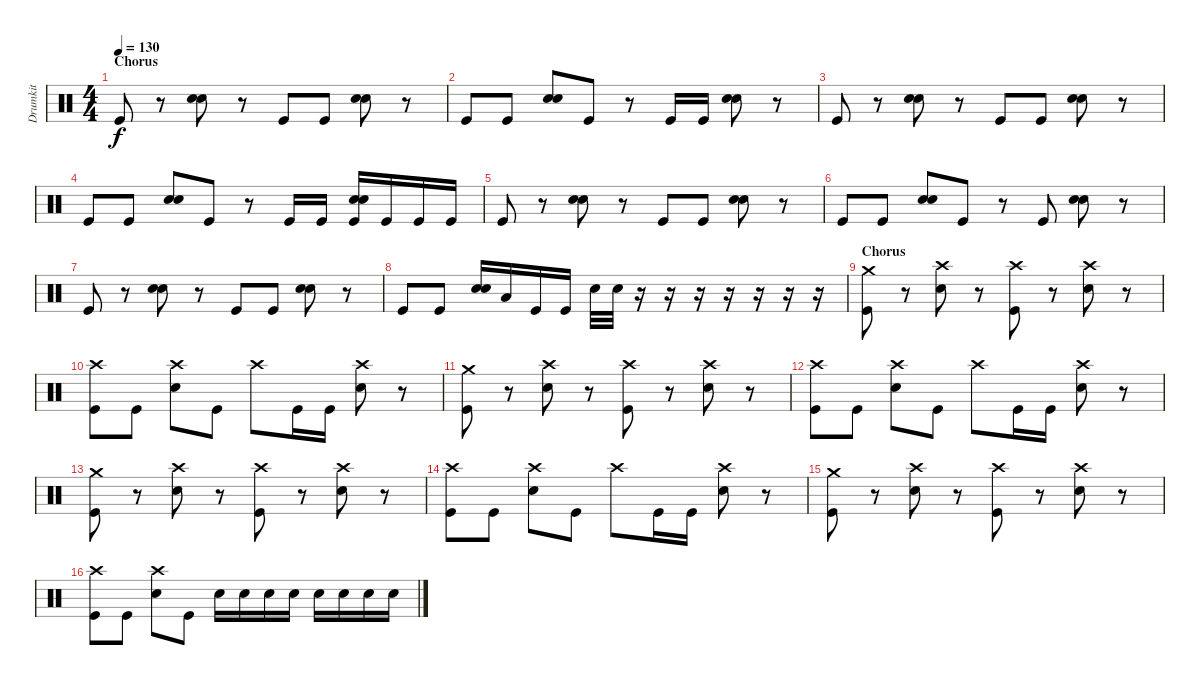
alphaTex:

\track ("Drumkit" "Drumkit") {instrument percussion}
\staff {score}
\articulation defaults
\ts (4 4)
\section ("" "Chorus")
\tempo 130
\clef neutral
\ks c "Kick (hit)".8{dy f}
r.8 ("Hand Clap (hit)" "Electric Snare (hit)").8 r.8 "Kick (hit)".8 "Kick (hit)".8 ("Hand Clap (hit)" "Electric Snare (hit)").8 r.8 |
"Kick (hit)".8 "Kick (hit)".8 ("Hand Clap (hit)" "Electric Snare (hit)").8 "Kick (hit)".8 r.8 "Kick (hit)".16 "Kick (hit)".16 ("Hand Clap (hit)" "Electric Snare (hit)").8 r.8 |
"Kick (hit)".8 r.8 ("Hand Clap (hit)" "Electric Snare (hit)").8 r.8 "Kick (hit)".8 "Kick (hit)".8 ("Hand Clap (hit)" "Electric Snare (hit)").8 r.8 |
"Kick (hit)".8 "Kick (hit)".8 ("Hand Clap (hit)" "Electric Snare (hit)").8 "Kick (hit)".8 r.8 "Kick (hit)".16 "Kick (hit)".16 ("Hand Clap (hit)" "Electric Snare (hit)" "Kick (hit)").16 "Kick (hit)".16 "Kick (hit)".16 "Kick (hit)".16 |
"Kick (hit)".8 r.8 ("Hand Clap (hit)" "Electric Snare (hit)").8 r.8 "Kick (hit)".8 "Kick (hit)".8 ("Hand Clap (hit)" "Electric Snare (hit)").8 r.8 |
"Kick (hit)".8 "Kick (hit)".8 ("Hand Clap (hit)" "Electric Snare (hit)").8 "Kick (hit)".8 r.8 "Kick (hit)".8 ("Hand Clap (hit)" "Electric Snare (hit)").8 r.8 |
"Kick (hit)".8 r.8 ("Hand Clap (hit)" "Electric Snare (hit)").8 r.8 "Kick (hit)".8 "Kick (hit)".8 ("Hand Clap (hit)" "Electric Snare (hit)").8 r.8 |
"Kick (hit)".8 "Kick (hit)".8 ("Hand Clap (hit)" "Electric Snare (hit)").16 "Low Tom (hit)".16 "Kick (hit)".16 "Kick (hit)".16 "Electric Snare (hit)".32 "Electric Snare (hit)".32 r.16 r.16 r.16 r.16 r.16 r.16 r.16 |
\section ("" "Chorus")
("Crash medium (hit)" "Kick (hit)").8 r.8 ("Crash high (hit)" "Electric Snare (hit)").8 r.8 ("Crash high (hit)" "Kick (hit)").8 r.8 ("Crash high (hit)" "Electric Snare (hit)").8 r.8 |
("Crash high (hit)" "Kick (hit)").8 "Kick (hit)".8 ("Crash high (hit)" "Electric Snare (hit)").8 "Kick (hit)".8 "Crash high (hit)".8 "Kick (hit)".16 "Kick (hit)".16 ("Crash high (hit)" "Electric Snare (hit)").8 r.8 |
("Crash medium (hit)" "Kick (hit)").8 r.8 ("Crash high (hit)" "Electric Snare (hit)").8 r.8 ("Crash high (hit)" "Kick (hit)").8 r.8 ("Crash high (hit)" "Electric Snare (hit)").8 r.8 |
("Crash high (hit)" "Kick (hit)").8 "Kick (hit)".8 ("Crash high (hit)" "Electric Snare (hit)").8 "Kick (hit)".8 "Crash high (hit)".8 "Kick (hit)".16 "Kick (hit)".16 ("Crash high (hit)" "Electric Snare (hit)").8 r.8 |
("Crash medium (hit)" "Kick (hit)").8 r.8 ("Crash high (hit)" "Electric Snare (hit)").8 r.8 ("Crash high (hit)" "Kick (hit)").8 r.8 ("Crash high (hit)" "Electric Snare (hit)").8 r.8 |
("Crash high (hit)" "Kick (hit)").8 "Kick (hit)".8 ("Crash high (hit)" "Electric Snare (hit)").8 "Kick (hit)".8 "Crash high (hit)".8 "Kick (hit)".16 "Kick (hit)".16 ("Crash high (hit)" "Electric Snare (hit)").8 r.8 |
("Crash medium (hit)" "Kick (hit)").8 r.8 ("Crash high (hit)" "Electric Snare (hit)").8 r.8 ("Crash high (hit)" "Kick (hit)").8 r.8 ("Crash high (hit)" "Electric Snare (hit)").8 r.8 |
("Crash high (hit)" "Kick (hit)").8 "Kick (hit)".8 ("Crash high (hit)" "Electric Snare (hit)").8 "Kick (hit)".8 "Electric Snare (hit)".16 "Electric Snare (hit)".16 "Electric Snare (hit)".16 "Electric Snare (hit)".16 "Electric Snare (hit)".16 "Electric Snare (hit)".16 "Electric Snare (hit)".16 "Electric Snare (hit)".16
